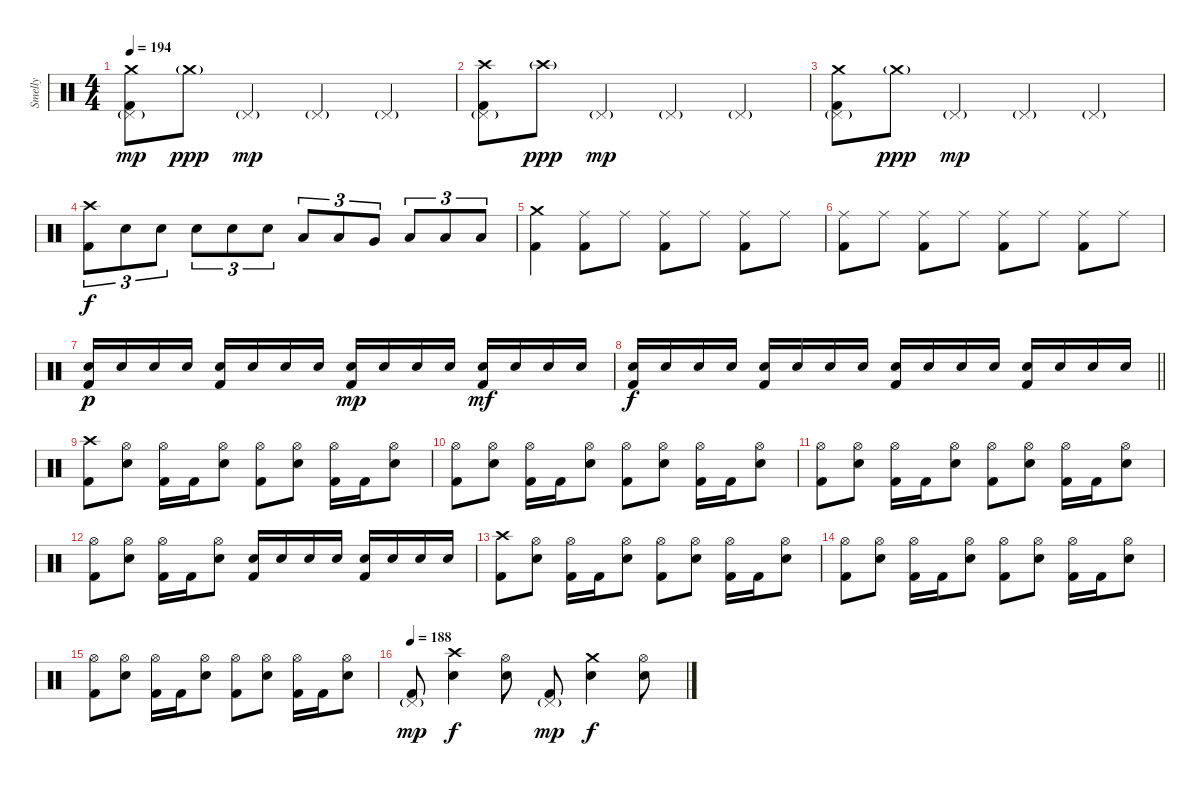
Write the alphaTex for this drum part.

\track ("Smelly" "Smelly") {instrument percussion}
\staff {score}
\articulation defaults
\ts (4 4)
\section ("" "")
\tempo 194
\clef neutral
\ks c
("Pedal Hi-Hat (hit)"{g} "Crash medium (hit)" "Kick (hit) 2").8{dy mp} "Crash medium (hit)"{g}.8{dy ppp} "Pedal Hi-Hat (hit)"{g}.4{dy mp} "Pedal Hi-Hat (hit)"{g}.4 "Pedal Hi-Hat (hit)"{g}.4 |
("Pedal Hi-Hat (hit)"{g} "Crash high (hit)" "Kick (hit) 2").8 "Crash high (hit)"{g}.8{dy ppp} "Pedal Hi-Hat (hit)"{g}.4{dy mp} "Pedal Hi-Hat (hit)"{g}.4 "Pedal Hi-Hat (hit)"{g}.4 |
("Pedal Hi-Hat (hit)"{g} "Crash medium (hit)" "Kick (hit) 2").8 "Crash medium (hit)"{g}.8{dy ppp} "Pedal Hi-Hat (hit)"{g}.4{dy mp} "Pedal Hi-Hat (hit)"{g}.4 "Pedal Hi-Hat (hit)"{g}.4 |
("Crash high (hit)" "Kick (hit) 2").8{tu (3 2) dy f} "Electric Snare (hit)".8{tu (3 2)} "Electric Snare (hit)".8{tu (3 2)} "Electric Snare (hit)".8{tu (3 2)} "Electric Snare (hit)".8{tu (3 2)} "Electric Snare (hit)".8{tu (3 2)} "Low Tom (hit)".8{tu (3 2)} "Low Tom (hit)".8{tu (3 2)} "Very Low Tom (hit)".8{tu (3 2)} "Low Floor Tom (hit)".8{tu (3 2)} "Low Floor Tom (hit)".8{tu (3 2)} "Low Floor Tom (hit)".8{tu (3 2)} |
("Crash medium (hit)" "Kick (hit) 2").4 ("Ride (middle)" "Kick (hit) 2").8 "Ride (middle)".8 ("Ride (middle)" "Kick (hit) 2").8 "Ride (middle)".8 ("Ride (middle)" "Kick (hit) 2").8 "Ride (middle)".8 |
("Ride (middle)" "Kick (hit) 2").8 "Ride (middle)".8 ("Ride (middle)" "Kick (hit) 2").8 "Ride (middle)".8 ("Ride (middle)" "Kick (hit) 2").8 "Ride (middle)".8 ("Ride (middle)" "Kick (hit) 2").8 "Ride (middle)".8 |
("Electric Snare (hit)" "Kick (hit) 2").16{dy p} "Electric Snare (hit)".16 "Electric Snare (hit)".16 "Electric Snare (hit)".16 ("Electric Snare (hit)" "Kick (hit) 2").16 "Electric Snare (hit)".16 "Electric Snare (hit)".16 "Electric Snare (hit)".16 ("Electric Snare (hit)" "Kick (hit) 2").16{dy mp} "Electric Snare (hit)".16 "Electric Snare (hit)".16 "Electric Snare (hit)".16 ("Electric Snare (hit)" "Kick (hit) 2").16{dy mf} "Electric Snare (hit)".16 "Electric Snare (hit)".16 "Electric Snare (hit)".16 |
\barLineRight lightlight
("Electric Snare (hit)" "Kick (hit) 2").16{dy f} "Electric Snare (hit)".16 "Electric Snare (hit)".16 "Electric Snare (hit)".16 ("Electric Snare (hit)" "Kick (hit) 2").16 "Electric Snare (hit)".16 "Electric Snare (hit)".16 "Electric Snare (hit)".16 ("Electric Snare (hit)" "Kick (hit) 2").16 "Electric Snare (hit)".16 "Electric Snare (hit)".16 "Electric Snare (hit)".16 ("Electric Snare (hit)" "Kick (hit) 2").16 "Electric Snare (hit)".16 "Electric Snare (hit)".16 "Electric Snare (hit)".16 |
\section ("" "")
("Crash high (hit)" "Kick (hit) 2").8 ("Hi-Hat (open)" "Electric Snare (hit)").8 ("Hi-Hat (open)" "Kick (hit) 2").16 "Kick (hit) 2".16 ("Hi-Hat (open)" "Electric Snare (hit)").8 ("Hi-Hat (open)" "Kick (hit) 2").8 ("Hi-Hat (open)" "Electric Snare (hit)").8 ("Hi-Hat (open)" "Kick (hit) 2").16 "Kick (hit) 2".16 ("Hi-Hat (open)" "Electric Snare (hit)").8 |
("Hi-Hat (open)" "Kick (hit) 2").8 ("Hi-Hat (open)" "Electric Snare (hit)").8 ("Hi-Hat (open)" "Kick (hit) 2").16 "Kick (hit) 2".16 ("Hi-Hat (open)" "Electric Snare (hit)").8 ("Hi-Hat (open)" "Kick (hit) 2").8 ("Hi-Hat (open)" "Electric Snare (hit)").8 ("Hi-Hat (open)" "Kick (hit) 2").16 "Kick (hit) 2".16 ("Hi-Hat (open)" "Electric Snare (hit)").8 |
("Hi-Hat (open)" "Kick (hit) 2").8 ("Hi-Hat (open)" "Electric Snare (hit)").8 ("Hi-Hat (open)" "Kick (hit) 2").16 "Kick (hit) 2".16 ("Hi-Hat (open)" "Electric Snare (hit)").8 ("Hi-Hat (open)" "Kick (hit) 2").8 ("Hi-Hat (open)" "Electric Snare (hit)").8 ("Hi-Hat (open)" "Kick (hit) 2").16 "Kick (hit) 2".16 ("Hi-Hat (open)" "Electric Snare (hit)").8 |
("Hi-Hat (open)" "Kick (hit) 2").8 ("Hi-Hat (open)" "Electric Snare (hit)").8 ("Hi-Hat (open)" "Kick (hit) 2").16 "Kick (hit) 2".16 ("Hi-Hat (open)" "Electric Snare (hit)").8 ("Electric Snare (hit)" "Kick (hit) 2").16 "Electric Snare (hit)".16 "Electric Snare (hit)".16 "Electric Snare (hit)".16 ("Electric Snare (hit)" "Kick (hit) 2").16 "Electric Snare (hit)".16 "Electric Snare (hit)".16 "Electric Snare (hit)".16 |
("Crash high (hit)" "Kick (hit) 2").8 ("Hi-Hat (open)" "Electric Snare (hit)").8 ("Hi-Hat (open)" "Kick (hit) 2").16 "Kick (hit) 2".16 ("Hi-Hat (open)" "Electric Snare (hit)").8 ("Hi-Hat (open)" "Kick (hit) 2").8 ("Hi-Hat (open)" "Electric Snare (hit)").8 ("Hi-Hat (open)" "Kick (hit) 2").16 "Kick (hit) 2".16 ("Hi-Hat (open)" "Electric Snare (hit)").8 |
("Hi-Hat (open)" "Kick (hit) 2").8 ("Hi-Hat (open)" "Electric Snare (hit)").8 ("Hi-Hat (open)" "Kick (hit) 2").16 "Kick (hit) 2".16 ("Hi-Hat (open)" "Electric Snare (hit)").8 ("Hi-Hat (open)" "Kick (hit) 2").8 ("Hi-Hat (open)" "Electric Snare (hit)").8 ("Hi-Hat (open)" "Kick (hit) 2").16 "Kick (hit) 2".16 ("Hi-Hat (open)" "Electric Snare (hit)").8 |
("Hi-Hat (open)" "Kick (hit) 2").8 ("Hi-Hat (open)" "Electric Snare (hit)").8 ("Hi-Hat (open)" "Kick (hit) 2").16 "Kick (hit) 2".16 ("Hi-Hat (open)" "Electric Snare (hit)").8 ("Hi-Hat (open)" "Kick (hit) 2").8 ("Hi-Hat (open)" "Electric Snare (hit)").8 ("Hi-Hat (open)" "Kick (hit) 2").16 "Kick (hit) 2".16 ("Hi-Hat (open)" "Electric Snare (hit)").8 |
\tempo 188
("Pedal Hi-Hat (hit)"{g} "Kick (hit) 2").8{dy mp} ("Crash high (hit)" "Electric Snare (hit)").4{dy f} ("Hi-Hat (open)" "Electric Snare (hit)").8 ("Pedal Hi-Hat (hit)"{g} "Kick (hit) 2").8{dy mp} ("Crash medium (hit)" "Electric Snare (hit)").4{dy f} ("Hi-Hat (open)" "Electric Snare (hit)").8
